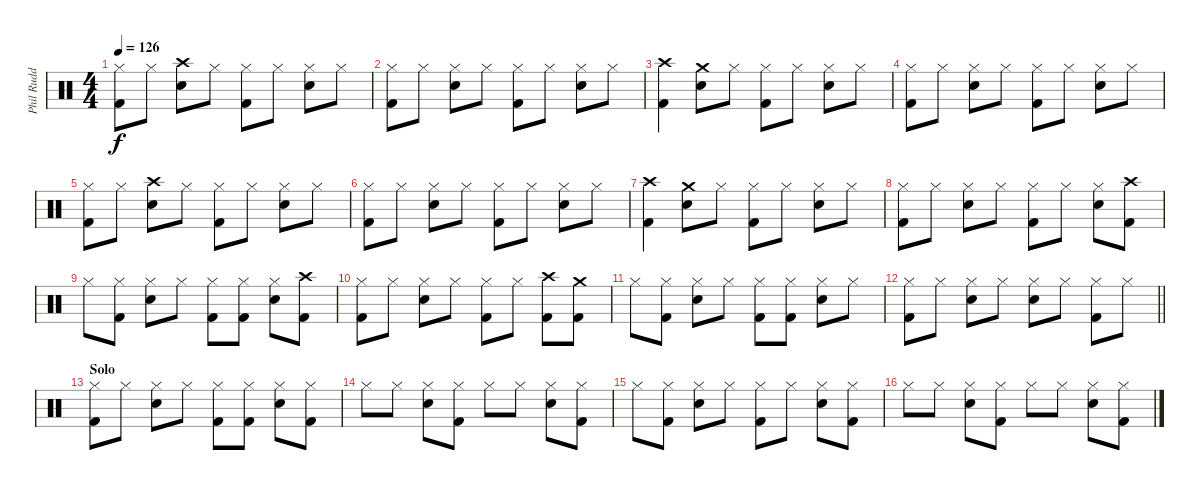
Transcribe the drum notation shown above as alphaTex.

\track ("Phil Rudd (Drums)" "Phil Rudd ") {instrument percussion}
\staff {score}
\articulation defaults
\ts (4 4)
\tempo 126
\clef neutral
\ks c
("Hi-Hat (closed)" "Kick (hit) 2").8{dy f} "Hi-Hat (closed)".8 ("Crash high (hit)" "Snare (hit) 2").8 "Hi-Hat (closed)".8 ("Hi-Hat (closed)" "Kick (hit) 2").8 "Hi-Hat (closed)".8 ("Hi-Hat (closed)" "Snare (hit) 2").8 "Hi-Hat (closed)".8 |
("Hi-Hat (closed)" "Kick (hit) 2").8 "Hi-Hat (closed)".8 ("Hi-Hat (closed)" "Snare (hit) 2").8 "Hi-Hat (closed)".8 ("Hi-Hat (closed)" "Kick (hit) 2").8 "Hi-Hat (closed)".8 ("Hi-Hat (closed)" "Snare (hit) 2").8 "Hi-Hat (closed)".8 |
("Crash high (hit)" "Kick (hit) 2").4 ("Crash medium (hit)" "Snare (hit) 2").8 "Hi-Hat (closed)".8 ("Hi-Hat (closed)" "Kick (hit) 2").8 "Hi-Hat (closed)".8 ("Hi-Hat (closed)" "Snare (hit) 2").8 "Hi-Hat (closed)".8 |
("Hi-Hat (closed)" "Kick (hit) 2").8 "Hi-Hat (closed)".8 ("Hi-Hat (closed)" "Snare (hit) 2").8 "Hi-Hat (closed)".8 ("Hi-Hat (closed)" "Kick (hit) 2").8 "Hi-Hat (closed)".8 ("Hi-Hat (closed)" "Snare (hit) 2").8 "Hi-Hat (closed)".8 |
("Hi-Hat (closed)" "Kick (hit) 2").8 "Hi-Hat (closed)".8 ("Crash high (hit)" "Snare (hit) 2").8 "Hi-Hat (closed)".8 ("Hi-Hat (closed)" "Kick (hit) 2").8 "Hi-Hat (closed)".8 ("Hi-Hat (closed)" "Snare (hit) 2").8 "Hi-Hat (closed)".8 |
("Hi-Hat (closed)" "Kick (hit) 2").8 "Hi-Hat (closed)".8 ("Hi-Hat (closed)" "Snare (hit) 2").8 "Hi-Hat (closed)".8 ("Hi-Hat (closed)" "Kick (hit) 2").8 "Hi-Hat (closed)".8 ("Hi-Hat (closed)" "Snare (hit) 2").8 "Hi-Hat (closed)".8 |
("Crash high (hit)" "Kick (hit) 2").4 ("Crash medium (hit)" "Snare (hit) 2").8 "Hi-Hat (closed)".8 ("Hi-Hat (closed)" "Kick (hit) 2").8 "Hi-Hat (closed)".8 ("Hi-Hat (closed)" "Snare (hit) 2").8 "Hi-Hat (closed)".8 |
("Hi-Hat (closed)" "Kick (hit) 2").8 "Hi-Hat (closed)".8 ("Hi-Hat (closed)" "Snare (hit) 2").8 "Hi-Hat (closed)".8 ("Hi-Hat (closed)" "Kick (hit) 2").8 "Hi-Hat (closed)".8 ("Hi-Hat (closed)" "Snare (hit) 2").8 ("Crash high (hit)" "Kick (hit) 2").8 |
"Hi-Hat (closed)".8 ("Hi-Hat (closed)" "Kick (hit) 2").8 ("Hi-Hat (closed)" "Snare (hit) 2").8 "Hi-Hat (closed)".8 ("Hi-Hat (closed)" "Kick (hit) 2").8 ("Hi-Hat (closed)" "Kick (hit) 2").8 ("Hi-Hat (closed)" "Snare (hit) 2").8 ("Crash high (hit)" "Kick (hit) 2").8 |
("Hi-Hat (closed)" "Kick (hit) 2").8 "Hi-Hat (closed)".8 ("Hi-Hat (closed)" "Snare (hit) 2").8 "Hi-Hat (closed)".8 ("Hi-Hat (closed)" "Kick (hit) 2").8 "Hi-Hat (closed)".8 ("Crash high (hit)" "Kick (hit) 2").8 ("Crash medium (hit)" "Kick (hit) 2").8 |
"Hi-Hat (closed)".8 ("Hi-Hat (closed)" "Kick (hit) 2").8 ("Hi-Hat (closed)" "Snare (hit) 2").8 "Hi-Hat (closed)".8 ("Hi-Hat (closed)" "Kick (hit) 2").8 ("Hi-Hat (closed)" "Kick (hit) 2").8 ("Hi-Hat (closed)" "Snare (hit) 2").8 "Hi-Hat (closed)".8 |
\barLineRight lightlight
("Hi-Hat (closed)" "Kick (hit) 2").8 "Hi-Hat (closed)".8 ("Hi-Hat (closed)" "Snare (hit) 2").8 "Hi-Hat (closed)".8 ("Hi-Hat (closed)" "Snare (hit) 2").8 "Hi-Hat (closed)".8 ("Hi-Hat (closed)" "Kick (hit) 2").8 "Hi-Hat (closed)".8 |
\section ("" "Solo")
("Hi-Hat (closed)" "Kick (hit) 2").8 "Hi-Hat (closed)".8 ("Hi-Hat (closed)" "Snare (hit) 2").8 "Hi-Hat (closed)".8 ("Hi-Hat (closed)" "Kick (hit) 2").8 ("Hi-Hat (closed)" "Kick (hit) 2").8 ("Hi-Hat (closed)" "Snare (hit) 2").8 ("Hi-Hat (closed)" "Kick (hit) 2").8 |
"Hi-Hat (closed)".8 "Hi-Hat (closed)".8 ("Hi-Hat (closed)" "Snare (hit) 2").8 ("Hi-Hat (closed)" "Kick (hit) 2").8 "Hi-Hat (closed)".8 "Hi-Hat (closed)".8 ("Hi-Hat (closed)" "Snare (hit) 2").8 ("Hi-Hat (closed)" "Kick (hit) 2").8 |
"Hi-Hat (closed)".8 ("Hi-Hat (closed)" "Kick (hit) 2").8 ("Hi-Hat (closed)" "Snare (hit) 2").8 "Hi-Hat (closed)".8 ("Hi-Hat (closed)" "Kick (hit) 2").8 "Hi-Hat (closed)".8 ("Hi-Hat (closed)" "Snare (hit) 2").8 ("Hi-Hat (closed)" "Kick (hit) 2").8 |
"Hi-Hat (closed)".8 "Hi-Hat (closed)".8 ("Hi-Hat (closed)" "Snare (hit) 2").8 ("Hi-Hat (closed)" "Kick (hit) 2").8 "Hi-Hat (closed)".8 "Hi-Hat (closed)".8 ("Hi-Hat (closed)" "Snare (hit) 2").8 ("Hi-Hat (closed)" "Kick (hit) 2").8
